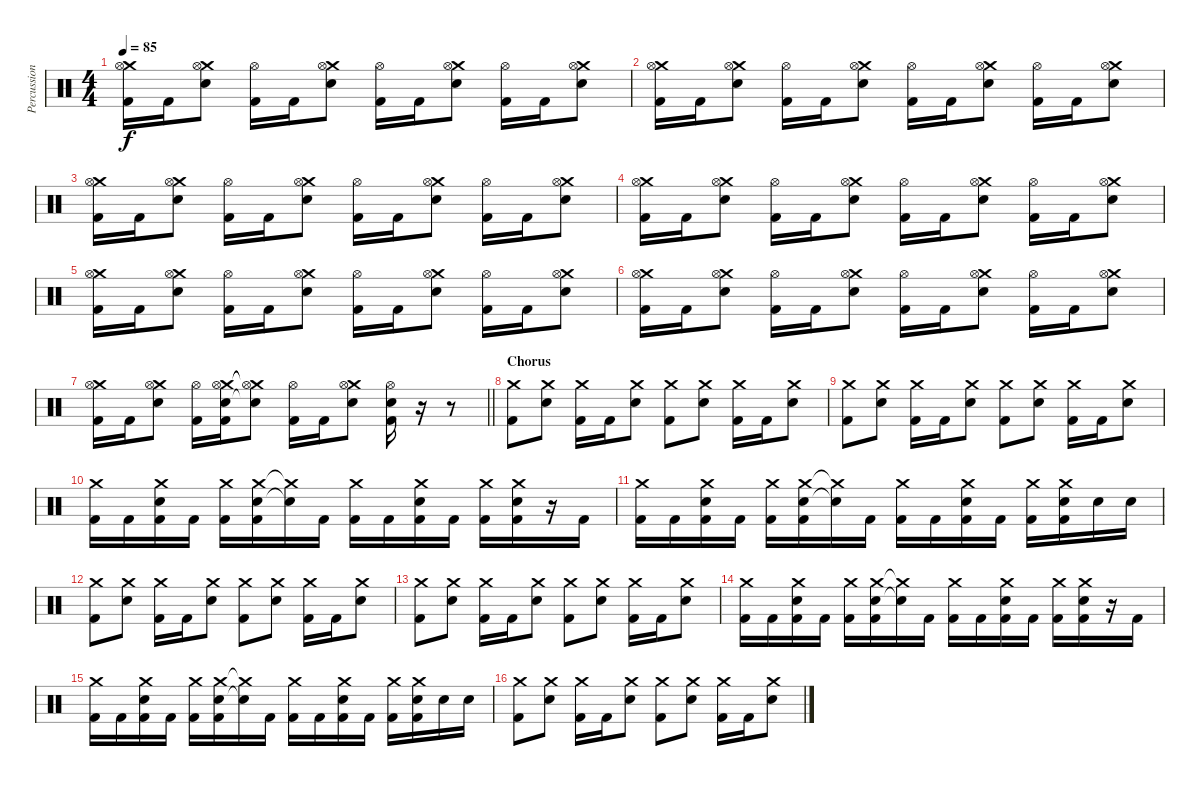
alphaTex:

\track ("Percussion" "Percussion") {instrument percussion}
\staff {score}
\articulation defaults
\ts (4 4)
\tempo 85
\clef neutral
\ks c
("Crash medium (hit)" "Hi-Hat (open)" "Kick (hit) 2").16{dy f} "Kick (hit) 2".16 ("Crash medium (hit)" "Hi-Hat (open)" "Electric Snare (hit)").8 ("Hi-Hat (open)" "Kick (hit) 2").16 "Kick (hit) 2".16 ("Crash medium (hit)" "Hi-Hat (open)" "Electric Snare (hit)").8 ("Hi-Hat (open)" "Kick (hit) 2").16 "Kick (hit) 2".16 ("Crash medium (hit)" "Hi-Hat (open)" "Electric Snare (hit)").8 ("Hi-Hat (open)" "Kick (hit) 2").16 "Kick (hit) 2".16 ("Crash medium (hit)" "Hi-Hat (open)" "Electric Snare (hit)").8 |
("Crash medium (hit)" "Hi-Hat (open)" "Kick (hit) 2").16 "Kick (hit) 2".16 ("Crash medium (hit)" "Hi-Hat (open)" "Electric Snare (hit)").8 ("Hi-Hat (open)" "Kick (hit) 2").16 "Kick (hit) 2".16 ("Crash medium (hit)" "Hi-Hat (open)" "Electric Snare (hit)").8 ("Hi-Hat (open)" "Kick (hit) 2").16 "Kick (hit) 2".16 ("Crash medium (hit)" "Hi-Hat (open)" "Electric Snare (hit)").8 ("Hi-Hat (open)" "Kick (hit) 2").16 "Kick (hit) 2".16 ("Crash medium (hit)" "Hi-Hat (open)" "Electric Snare (hit)").8 |
("Crash medium (hit)" "Hi-Hat (open)" "Kick (hit) 2").16 "Kick (hit) 2".16 ("Crash medium (hit)" "Hi-Hat (open)" "Electric Snare (hit)").8 ("Hi-Hat (open)" "Kick (hit) 2").16 "Kick (hit) 2".16 ("Crash medium (hit)" "Hi-Hat (open)" "Electric Snare (hit)").8 ("Hi-Hat (open)" "Kick (hit) 2").16 "Kick (hit) 2".16 ("Crash medium (hit)" "Hi-Hat (open)" "Electric Snare (hit)").8 ("Hi-Hat (open)" "Kick (hit) 2").16 "Kick (hit) 2".16 ("Crash medium (hit)" "Hi-Hat (open)" "Electric Snare (hit)").8 |
("Crash medium (hit)" "Hi-Hat (open)" "Kick (hit) 2").16 "Kick (hit) 2".16 ("Crash medium (hit)" "Hi-Hat (open)" "Electric Snare (hit)").8 ("Hi-Hat (open)" "Kick (hit) 2").16 "Kick (hit) 2".16 ("Crash medium (hit)" "Hi-Hat (open)" "Electric Snare (hit)").8 ("Hi-Hat (open)" "Kick (hit) 2").16 "Kick (hit) 2".16 ("Crash medium (hit)" "Hi-Hat (open)" "Electric Snare (hit)").8 ("Hi-Hat (open)" "Kick (hit) 2").16 "Kick (hit) 2".16 ("Crash medium (hit)" "Hi-Hat (open)" "Electric Snare (hit)").8 |
("Crash medium (hit)" "Hi-Hat (open)" "Kick (hit) 2").16 "Kick (hit) 2".16 ("Crash medium (hit)" "Hi-Hat (open)" "Electric Snare (hit)").8 ("Hi-Hat (open)" "Kick (hit) 2").16 "Kick (hit) 2".16 ("Crash medium (hit)" "Hi-Hat (open)" "Electric Snare (hit)").8 ("Hi-Hat (open)" "Kick (hit) 2").16 "Kick (hit) 2".16 ("Crash medium (hit)" "Hi-Hat (open)" "Electric Snare (hit)").8 ("Hi-Hat (open)" "Kick (hit) 2").16 "Kick (hit) 2".16 ("Crash medium (hit)" "Hi-Hat (open)" "Electric Snare (hit)").8 |
("Crash medium (hit)" "Hi-Hat (open)" "Kick (hit) 2").16 "Kick (hit) 2".16 ("Crash medium (hit)" "Hi-Hat (open)" "Electric Snare (hit)").8 ("Hi-Hat (open)" "Kick (hit) 2").16 "Kick (hit) 2".16 ("Crash medium (hit)" "Hi-Hat (open)" "Electric Snare (hit)").8 ("Hi-Hat (open)" "Kick (hit) 2").16 "Kick (hit) 2".16 ("Crash medium (hit)" "Hi-Hat (open)" "Electric Snare (hit)").8 ("Hi-Hat (open)" "Kick (hit) 2").16 "Kick (hit) 2".16 ("Crash medium (hit)" "Hi-Hat (open)" "Electric Snare (hit)").8 |
\barLineRight lightlight
("Crash medium (hit)" "Hi-Hat (open)" "Kick (hit) 2").16 "Kick (hit) 2".16 ("Crash medium (hit)" "Hi-Hat (open)" "Electric Snare (hit)").8 ("Hi-Hat (open)" "Kick (hit) 2").16 ("Crash medium (hit)" "Hi-Hat (open)" "Electric Snare (hit)" "Kick (hit) 2").16 ("Crash medium (hit)"{t} "Hi-Hat (open)"{t} "Electric Snare (hit)"{t}).8 ("Hi-Hat (open)" "Kick (hit) 2").16 "Kick (hit) 2".16 ("Crash medium (hit)" "Hi-Hat (open)" "Electric Snare (hit)").8 ("Hi-Hat (open)" "Electric Snare (hit)" "Kick (hit) 2").16 r.16 r.8 |
\section ("" "Chorus")
("Crash medium (hit)" "Kick (hit) 2").8 ("Crash medium (hit)" "Electric Snare (hit)").8 ("Crash medium (hit)" "Kick (hit) 2").16 "Kick (hit) 2".16 ("Crash medium (hit)" "Electric Snare (hit)").8 ("Crash medium (hit)" "Kick (hit) 2").8 ("Crash medium (hit)" "Electric Snare (hit)").8 ("Crash medium (hit)" "Kick (hit) 2").16 "Kick (hit) 2".16 ("Crash medium (hit)" "Electric Snare (hit)").8 |
("Crash medium (hit)" "Kick (hit) 2").8 ("Crash medium (hit)" "Electric Snare (hit)").8 ("Crash medium (hit)" "Kick (hit) 2").16 "Kick (hit) 2".16 ("Crash medium (hit)" "Electric Snare (hit)").8 ("Crash medium (hit)" "Kick (hit) 2").8 ("Crash medium (hit)" "Electric Snare (hit)").8 ("Crash medium (hit)" "Kick (hit) 2").16 "Kick (hit) 2".16 ("Crash medium (hit)" "Electric Snare (hit)").8 |
("Crash medium (hit)" "Kick (hit) 2").16 "Kick (hit) 2".16 ("Crash medium (hit)" "Electric Snare (hit)" "Kick (hit) 2").16 "Kick (hit) 2".16 ("Crash medium (hit)" "Kick (hit) 2").16 ("Crash medium (hit)" "Electric Snare (hit)" "Kick (hit) 2").16 ("Crash medium (hit)"{t} "Electric Snare (hit)"{t}).16 "Kick (hit) 2".16 ("Crash medium (hit)" "Kick (hit) 2").16 "Kick (hit) 2".16 ("Crash medium (hit)" "Electric Snare (hit)" "Kick (hit) 2").16 "Kick (hit) 2".16 ("Crash medium (hit)" "Kick (hit) 2").16 ("Crash medium (hit)" "Electric Snare (hit)" "Kick (hit) 2").16 r.16 "Kick (hit) 2".16 |
("Crash medium (hit)" "Kick (hit) 2").16 "Kick (hit) 2".16 ("Crash medium (hit)" "Electric Snare (hit)" "Kick (hit) 2").16 "Kick (hit) 2".16 ("Crash medium (hit)" "Kick (hit) 2").16 ("Crash medium (hit)" "Electric Snare (hit)" "Kick (hit) 2").16 ("Crash medium (hit)"{t} "Electric Snare (hit)"{t}).16 "Kick (hit) 2".16 ("Crash medium (hit)" "Kick (hit) 2").16 "Kick (hit) 2".16 ("Crash medium (hit)" "Electric Snare (hit)" "Kick (hit) 2").16 "Kick (hit) 2".16 ("Crash medium (hit)" "Kick (hit) 2").16 ("Crash medium (hit)" "Electric Snare (hit)" "Kick (hit) 2").16 "Electric Snare (hit)".16 "Electric Snare (hit)".16 |
("Crash medium (hit)" "Kick (hit) 2").8 ("Crash medium (hit)" "Electric Snare (hit)").8 ("Crash medium (hit)" "Kick (hit) 2").16 "Kick (hit) 2".16 ("Crash medium (hit)" "Electric Snare (hit)").8 ("Crash medium (hit)" "Kick (hit) 2").8 ("Crash medium (hit)" "Electric Snare (hit)").8 ("Crash medium (hit)" "Kick (hit) 2").16 "Kick (hit) 2".16 ("Crash medium (hit)" "Electric Snare (hit)").8 |
("Crash medium (hit)" "Kick (hit) 2").8 ("Crash medium (hit)" "Electric Snare (hit)").8 ("Crash medium (hit)" "Kick (hit) 2").16 "Kick (hit) 2".16 ("Crash medium (hit)" "Electric Snare (hit)").8 ("Crash medium (hit)" "Kick (hit) 2").8 ("Crash medium (hit)" "Electric Snare (hit)").8 ("Crash medium (hit)" "Kick (hit) 2").16 "Kick (hit) 2".16 ("Crash medium (hit)" "Electric Snare (hit)").8 |
("Crash medium (hit)" "Kick (hit) 2").16 "Kick (hit) 2".16 ("Crash medium (hit)" "Electric Snare (hit)" "Kick (hit) 2").16 "Kick (hit) 2".16 ("Crash medium (hit)" "Kick (hit) 2").16 ("Crash medium (hit)" "Electric Snare (hit)" "Kick (hit) 2").16 ("Crash medium (hit)"{t} "Electric Snare (hit)"{t}).16 "Kick (hit) 2".16 ("Crash medium (hit)" "Kick (hit) 2").16 "Kick (hit) 2".16 ("Crash medium (hit)" "Electric Snare (hit)" "Kick (hit) 2").16 "Kick (hit) 2".16 ("Crash medium (hit)" "Kick (hit) 2").16 ("Crash medium (hit)" "Electric Snare (hit)" "Kick (hit) 2").16 r.16 "Kick (hit) 2".16 |
("Crash medium (hit)" "Kick (hit) 2").16 "Kick (hit) 2".16 ("Crash medium (hit)" "Electric Snare (hit)" "Kick (hit) 2").16 "Kick (hit) 2".16 ("Crash medium (hit)" "Kick (hit) 2").16 ("Crash medium (hit)" "Electric Snare (hit)" "Kick (hit) 2").16 ("Crash medium (hit)"{t} "Electric Snare (hit)"{t}).16 "Kick (hit) 2".16 ("Crash medium (hit)" "Kick (hit) 2").16 "Kick (hit) 2".16 ("Crash medium (hit)" "Electric Snare (hit)" "Kick (hit) 2").16 "Kick (hit) 2".16 ("Crash medium (hit)" "Kick (hit) 2").16 ("Crash medium (hit)" "Electric Snare (hit)" "Kick (hit) 2").16 "Electric Snare (hit)".16 "Electric Snare (hit)".16 |
("Crash medium (hit)" "Kick (hit) 2").8 ("Crash medium (hit)" "Electric Snare (hit)").8 ("Crash medium (hit)" "Kick (hit) 2").16 "Kick (hit) 2".16 ("Crash medium (hit)" "Electric Snare (hit)").8 ("Crash medium (hit)" "Kick (hit) 2").8 ("Crash medium (hit)" "Electric Snare (hit)").8 ("Crash medium (hit)" "Kick (hit) 2").16 "Kick (hit) 2".16 ("Crash medium (hit)" "Electric Snare (hit)").8
